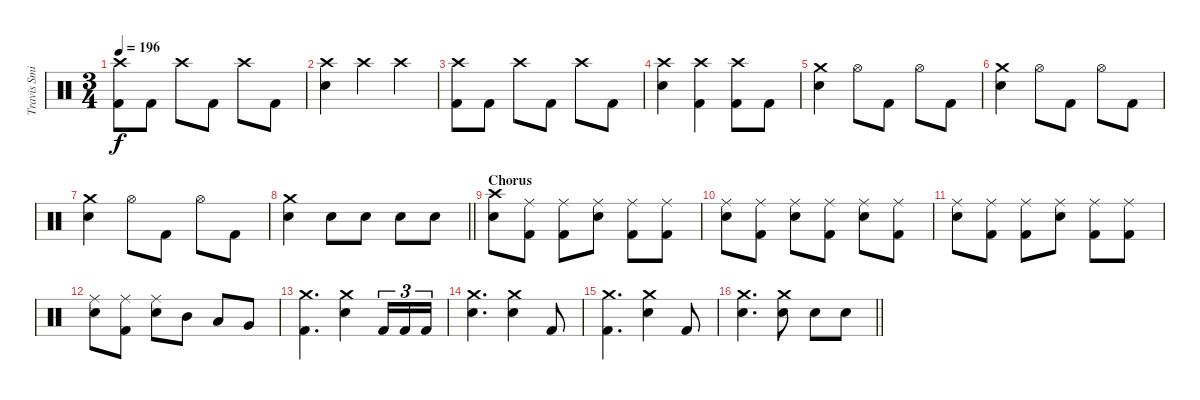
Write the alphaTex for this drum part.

\track ("Travis Smith" "Travis Smi") {instrument percussion}
\staff {score}
\articulation defaults
\ts (3 4)
\tempo 196
\clef neutral
\ks c
("Crash high (hit)" "Kick (hit) 2").8{dy f} "Kick (hit) 2".8 "Crash high (hit)".8 "Kick (hit) 2".8 "Crash high (hit)".8 "Kick (hit) 2".8 |
("Crash high (hit)" "Electric Snare (hit)").4 "Crash high (hit)".4 "Crash high (hit)".4 |
("Crash high (hit)" "Kick (hit) 2").8 "Kick (hit) 2".8 "Crash high (hit)".8 "Kick (hit) 2".8 "Crash high (hit)".8 "Kick (hit) 2".8 |
("Crash high (hit)" "Electric Snare (hit)").4 ("Crash high (hit)" "Kick (hit) 2").4 ("Crash high (hit)" "Kick (hit) 2").8 "Kick (hit) 2".8 |
("Crash medium (hit)" "Electric Snare (hit)").4 "Hi-Hat (open)".8 "Kick (hit) 2".8 "Hi-Hat (open)".8 "Kick (hit) 2".8 |
("Crash medium (hit)" "Electric Snare (hit)").4 "Hi-Hat (open)".8 "Kick (hit) 2".8 "Hi-Hat (open)".8 "Kick (hit) 2".8 |
("Crash medium (hit)" "Electric Snare (hit)").4 "Hi-Hat (open)".8 "Kick (hit) 2".8 "Hi-Hat (open)".8 "Kick (hit) 2".8 |
\barLineRight lightlight
("Crash medium (hit)" "Electric Snare (hit)").4 "Electric Snare (hit)".8 "Electric Snare (hit)".8 "Electric Snare (hit)".8 "Electric Snare (hit)".8 |
\section ("" "Chorus")
("Crash high (hit)" "Electric Snare (hit)").8 ("Ride (middle)" "Kick (hit) 2").8 ("Ride (middle)" "Kick (hit) 2").8 ("Ride (middle)" "Electric Snare (hit)").8 ("Ride (middle)" "Kick (hit) 2").8 ("Ride (middle)" "Kick (hit) 2").8 |
("Ride (middle)" "Electric Snare (hit)").8 ("Ride (middle)" "Kick (hit) 2").8 ("Ride (middle)" "Electric Snare (hit)").8 ("Ride (middle)" "Kick (hit) 2").8 ("Ride (middle)" "Electric Snare (hit)").8 ("Ride (middle)" "Kick (hit) 2").8 |
("Ride (middle)" "Electric Snare (hit)").8 ("Ride (middle)" "Kick (hit) 2").8 ("Ride (middle)" "Kick (hit) 2").8 ("Ride (middle)" "Electric Snare (hit)").8 ("Ride (middle)" "Kick (hit) 2").8 ("Ride (middle)" "Kick (hit) 2").8 |
("Ride (middle)" "Electric Snare (hit)").8 ("Ride (middle)" "Kick (hit) 2").8 ("Ride (middle)" "Electric Snare (hit)").8 "Mid Tom (hit)".8 "Low Tom (hit)".8 "Very Low Tom (hit)".8 |
("Crash medium (hit)" "Kick (hit) 2").4{d} ("Crash medium (hit)" "Electric Snare (hit)").4 "Kick (hit) 2".16{tu (3 2)} "Kick (hit) 2".16{tu (3 2)} "Kick (hit) 2".16{tu (3 2)} |
("Crash medium (hit)" "Electric Snare (hit)").4{d} ("Crash medium (hit)" "Electric Snare (hit)").4 "Kick (hit) 2".8 |
("Crash medium (hit)" "Kick (hit) 2").4{d} ("Crash medium (hit)" "Electric Snare (hit)").4 "Kick (hit) 2".8 |
\barLineRight lightlight
("Crash medium (hit)" "Electric Snare (hit)").4{d} ("Crash medium (hit)" "Electric Snare (hit)").8 "Electric Snare (hit)".8 "Electric Snare (hit)".8
